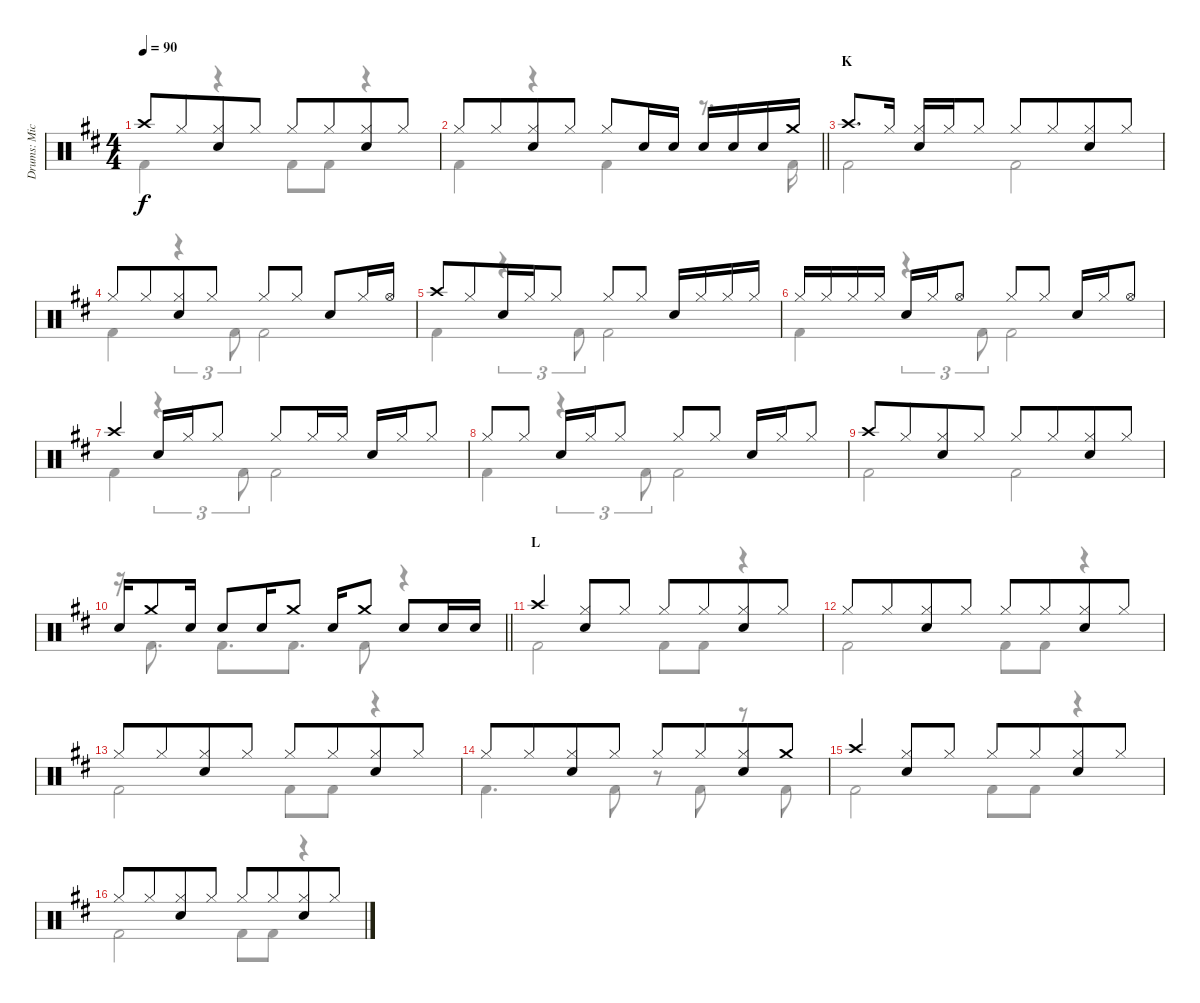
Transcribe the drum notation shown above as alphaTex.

\track ("Drums: Mick" "Drums: Mic") {instrument percussion}
\staff {score}
\articulation defaults
\voice
\ts (4 4)
\tempo 90
\clef neutral
\ks d "Crash high (hit)".8{dy f} "Hi-Hat (closed)".8{beam merge}
("Hi-Hat (closed)" "Snare (hit) 2").8 "Hi-Hat (closed)".8 "Hi-Hat (closed)".8 "Hi-Hat (closed)".8{beam merge} ("Hi-Hat (closed)" "Snare (hit) 2").8 "Hi-Hat (closed)".8 |
\barLineRight lightlight "Hi-Hat (closed)".8 "Hi-Hat (closed)".8{beam merge}
("Hi-Hat (closed)" "Snare (hit) 2").8 "Hi-Hat (closed)".8 "Hi-Hat (closed)".8 "Snare (hit) 2".16 "Snare (hit) 2".16 "Snare (hit) 2".16 "Snare (hit) 2".16 "Snare (hit) 2".16 "Crash medium (hit)".16 |
\section ("" "K")
"Crash high (hit)".8{d} "Hi-Hat (closed)".16 ("Hi-Hat (closed)" "Snare (hit) 2").16 "Hi-Hat (closed)".16 "Hi-Hat (closed)".8 "Hi-Hat (closed)".8 "Hi-Hat (closed)".8{beam merge} ("Hi-Hat (closed)" "Snare (hit) 2").8 "Hi-Hat (closed)".8 |
"Hi-Hat (closed)".8 "Hi-Hat (closed)".8{beam merge} ("Hi-Hat (closed)" "Snare (hit) 2").8 "Hi-Hat (closed)".8 "Hi-Hat (closed)".8 "Hi-Hat (closed)".8 "Snare (hit) 2".8 "Hi-Hat (closed)".16 "Hi-Hat (open)".16 |
"Crash high (hit)".8 "Hi-Hat (closed)".8{beam merge} "Snare (hit) 2".16 "Hi-Hat (closed)".16 "Hi-Hat (closed)".8 "Hi-Hat (closed)".8 "Hi-Hat (closed)".8 "Snare (hit) 2".16 "Hi-Hat (closed)".16 "Hi-Hat (closed)".16 "Hi-Hat (closed)".16 |
"Hi-Hat (closed)".16 "Hi-Hat (closed)".16 "Hi-Hat (closed)".16 "Hi-Hat (closed)".16 "Snare (hit) 2".16 "Hi-Hat (closed)".16 "Hi-Hat (open)".8 "Hi-Hat (closed)".8 "Hi-Hat (closed)".8 "Snare (hit) 2".16 "Hi-Hat (closed)".16 "Hi-Hat (open)".8 |
"Crash high (hit)".4 "Snare (hit) 2".16 "Hi-Hat (closed)".16 "Hi-Hat (closed)".8 "Hi-Hat (closed)".8 "Hi-Hat (closed)".16 "Hi-Hat (closed)".16 "Snare (hit) 2".16 "Hi-Hat (closed)".16 "Hi-Hat (closed)".8 |
"Hi-Hat (closed)".8 "Hi-Hat (closed)".8 "Snare (hit) 2".16 "Hi-Hat (closed)".16 "Hi-Hat (closed)".8 "Hi-Hat (closed)".8 "Hi-Hat (closed)".8 "Snare (hit) 2".16 "Hi-Hat (closed)".16 "Hi-Hat (closed)".8 |
"Crash high (hit)".8 "Hi-Hat (closed)".8{beam merge} ("Hi-Hat (closed)" "Snare (hit) 2").8 "Hi-Hat (closed)".8 "Hi-Hat (closed)".8 "Hi-Hat (closed)".8{beam merge} ("Hi-Hat (closed)" "Snare (hit) 2").8 "Hi-Hat (closed)".8 |
\barLineRight lightlight "Snare (hit) 2".16 "Crash medium (hit)".8 "Snare (hit) 2".16 "Snare (hit) 2".8 "Snare (hit) 2".16 "Crash medium (hit)".8 "Snare (hit) 2".16 "Crash medium (hit)".8 "Snare (hit) 2".8 "Snare (hit) 2".16 "Snare (hit) 2".16
|
\section ("" "L")
"Crash high (hit)".4 ("Hi-Hat (closed)" "Snare (hit) 2").8 "Hi-Hat (closed)".8 "Hi-Hat (closed)".8 "Hi-Hat (closed)".8{beam merge} ("Hi-Hat (closed)" "Snare (hit) 2").8 "Hi-Hat (closed)".8 |
"Hi-Hat (closed)".8 "Hi-Hat (closed)".8{beam merge} ("Hi-Hat (closed)" "Snare (hit) 2").8 "Hi-Hat (closed)".8 "Hi-Hat (closed)".8 "Hi-Hat (closed)".8{beam merge} ("Hi-Hat (closed)" "Snare (hit) 2").8 "Hi-Hat (closed)".8 |
"Hi-Hat (closed)".8 "Hi-Hat (closed)".8{beam merge} ("Hi-Hat (closed)" "Snare (hit) 2").8 "Hi-Hat (closed)".8 "Hi-Hat (closed)".8 "Hi-Hat (closed)".8{beam merge} ("Hi-Hat (closed)" "Snare (hit) 2").8 "Hi-Hat (closed)".8 |
"Hi-Hat (closed)".8 "Hi-Hat (closed)".8{beam merge} ("Hi-Hat (closed)" "Snare (hit) 2").8 "Hi-Hat (closed)".8 "Hi-Hat (closed)".8 "Hi-Hat (closed)".8{beam merge} ("Hi-Hat (closed)" "Snare (hit) 2").8 "Crash medium (hit)".8 |
"Crash high (hit)".4 ("Hi-Hat (closed)" "Snare (hit) 2").8 "Hi-Hat (closed)".8 "Hi-Hat (closed)".8 "Hi-Hat (closed)".8{beam merge} ("Hi-Hat (closed)" "Snare (hit) 2").8 "Hi-Hat (closed)".8 |
"Hi-Hat (closed)".8 "Hi-Hat (closed)".8{beam merge} ("Hi-Hat (closed)" "Snare (hit) 2").8 "Hi-Hat (closed)".8 "Hi-Hat (closed)".8 "Hi-Hat (closed)".8{beam merge} ("Hi-Hat (closed)" "Snare (hit) 2").8 "Hi-Hat (closed)".8
\voice
\clef neutral
\ottava regular
\simile none
\ks d "Kick (hit) 2".4{dy f}
r.4 "Kick (hit) 2".8 "Kick (hit) 2".8 r.4 |
\barLineRight lightlight "Kick (hit) 2".4
r.4 "Kick (hit) 2".4 r.8{d} "Kick (hit) 2".16 |
"Kick (hit) 2".2 "Kick (hit) 2".2 |
"Kick (hit) 2".4 r.4{tu (3 2)} "Kick (hit) 2".8{tu (3 2)} "Kick (hit) 2".2 |
"Kick (hit) 2".4 r.4{tu (3 2)} "Kick (hit) 2".8{tu (3 2)} "Kick (hit) 2".2 |
"Kick (hit) 2".4 r.4{tu (3 2)} "Kick (hit) 2".8{tu (3 2)} "Kick (hit) 2".2 |
"Kick (hit) 2".4 r.4{tu (3 2)} "Kick (hit) 2".8{tu (3 2)} "Kick (hit) 2".2 |
"Kick (hit) 2".4 r.4{tu (3 2)} "Kick (hit) 2".8{tu (3 2)} "Kick (hit) 2".2 |
"Kick (hit) 2".2 "Kick (hit) 2".2 |
\barLineRight lightlight
r.16 "Kick (hit) 2".8{d} "Kick (hit) 2".8{d} "Kick (hit) 2".8{d} "Kick (hit) 2".8 r.4 |
"Kick (hit) 2".2 "Kick (hit) 2".8 "Kick (hit) 2".8 r.4 |
"Kick (hit) 2".2 "Kick (hit) 2".8 "Kick (hit) 2".8 r.4 |
"Kick (hit) 2".2 "Kick (hit) 2".8 "Kick (hit) 2".8 r.4 |
"Kick (hit) 2".4{d} "Kick (hit) 2".8 r.8 "Kick (hit) 2".8 r.8 "Kick (hit) 2".8 |
"Kick (hit) 2".2 "Kick (hit) 2".8 "Kick (hit) 2".8 r.4 |
"Kick (hit) 2".2 "Kick (hit) 2".8 "Kick (hit) 2".8 r.4
